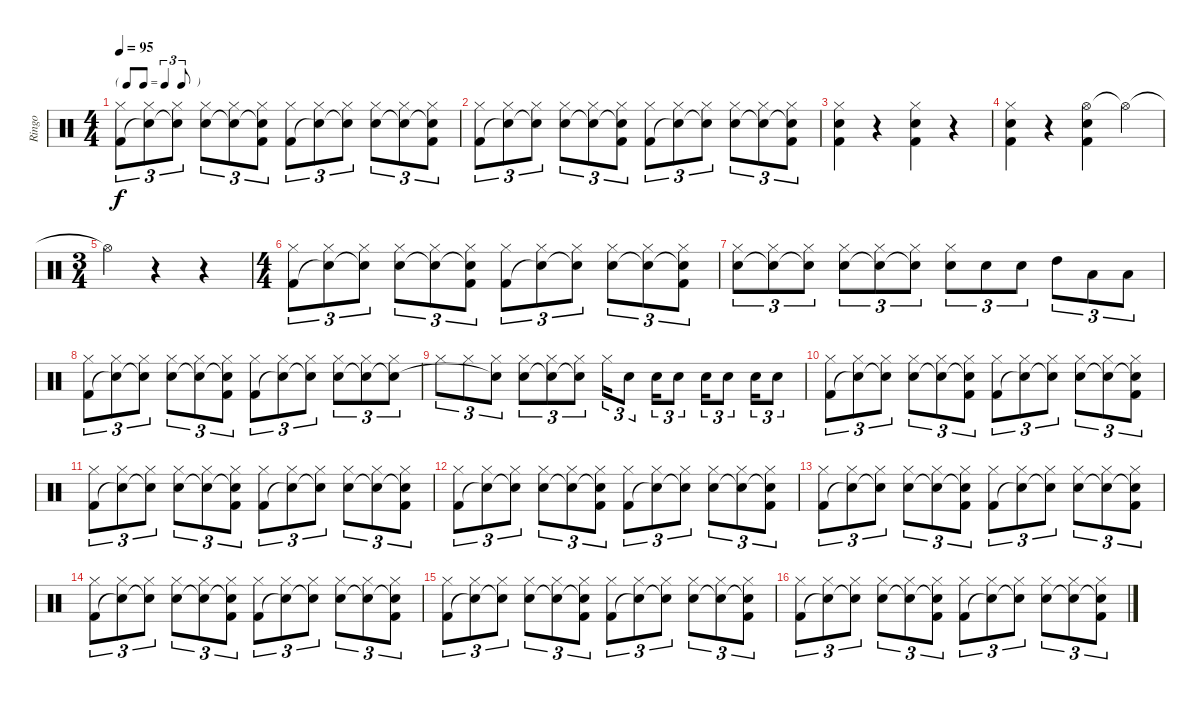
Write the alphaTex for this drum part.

\track ("Ringo" "Ringo") {instrument percussion}
\staff {score}
\articulation defaults
\ts (4 4)
\tf triplet8th
\tempo 95
\clef neutral
\ks c
("Hi-Hat (closed)" "Kick (hit) 2").8{tu (3 2) dy f} ("Hi-Hat (closed)" "Snare (hit)"{t}).8{tu (3 2)} ("Hi-Hat (closed)" "Snare (hit)"{t}).8{tu (3 2)} ("Hi-Hat (closed)" "Snare (hit) 2").8{tu (3 2)} ("Hi-Hat (closed)" "Snare (hit)"{t}).8{tu (3 2)} ("Hi-Hat (closed)" "Snare (hit)"{t} "Kick (hit) 2").8{tu (3 2)} ("Hi-Hat (closed)" "Kick (hit) 2").8{tu (3 2)} ("Hi-Hat (closed)" "Snare (hit)"{t}).8{tu (3 2)} ("Hi-Hat (closed)" "Snare (hit)"{t}).8{tu (3 2)} ("Hi-Hat (closed)" "Snare (hit) 2").8{tu (3 2)} ("Hi-Hat (closed)" "Snare (hit)"{t}).8{tu (3 2)} ("Hi-Hat (closed)" "Snare (hit)"{t} "Kick (hit) 2").8{tu (3 2)} |
("Hi-Hat (closed)" "Kick (hit) 2").8{tu (3 2)} ("Hi-Hat (closed)" "Snare (hit)"{t}).8{tu (3 2)} ("Hi-Hat (closed)" "Snare (hit)"{t}).8{tu (3 2)} ("Hi-Hat (closed)" "Snare (hit) 2").8{tu (3 2)} ("Hi-Hat (closed)" "Snare (hit)"{t}).8{tu (3 2)} ("Hi-Hat (closed)" "Snare (hit)"{t} "Kick (hit) 2").8{tu (3 2)} ("Hi-Hat (closed)" "Kick (hit) 2").8{tu (3 2)} ("Hi-Hat (closed)" "Snare (hit)"{t}).8{tu (3 2)} ("Hi-Hat (closed)" "Snare (hit)"{t}).8{tu (3 2)} ("Hi-Hat (closed)" "Snare (hit) 2").8{tu (3 2)} ("Hi-Hat (closed)" "Snare (hit)"{t}).8{tu (3 2)} ("Hi-Hat (closed)" "Snare (hit)"{t} "Kick (hit) 2").8{tu (3 2)} |
("Hi-Hat (closed)" "Snare (hit) 2" "Kick (hit) 2").4 r.4 ("Hi-Hat (closed)" "Snare (hit) 2" "Kick (hit) 2").4 r.4 |
("Hi-Hat (closed)" "Snare (hit) 2" "Kick (hit) 2").4 r.4 ("Hi-Hat (open)" "Snare (hit) 2" "Kick (hit) 2").4 "Hi-Hat (open)"{t}.4 |
\ts (3 4)
"Hi-Hat (open)"{t}.4 r.4 r.4 |
\ts (4 4)
("Hi-Hat (closed)" "Kick (hit) 2").8{tu (3 2)} ("Hi-Hat (closed)" "Snare (hit)"{t}).8{tu (3 2)} ("Hi-Hat (closed)" "Snare (hit)"{t}).8{tu (3 2)} ("Hi-Hat (closed)" "Snare (hit) 2").8{tu (3 2)} ("Hi-Hat (closed)" "Snare (hit)"{t}).8{tu (3 2)} ("Hi-Hat (closed)" "Snare (hit)"{t} "Kick (hit) 2").8{tu (3 2)} ("Hi-Hat (closed)" "Kick (hit) 2").8{tu (3 2)} ("Hi-Hat (closed)" "Snare (hit)"{t}).8{tu (3 2)} ("Hi-Hat (closed)" "Snare (hit)"{t}).8{tu (3 2)} ("Hi-Hat (closed)" "Snare (hit) 2").8{tu (3 2)} ("Hi-Hat (closed)" "Snare (hit)"{t}).8{tu (3 2)} ("Hi-Hat (closed)" "Snare (hit)"{t} "Kick (hit) 2").8{tu (3 2)} |
("Hi-Hat (closed)" "Snare (hit) 2").8{tu (3 2)} ("Hi-Hat (closed)" "Snare (hit)"{t}).8{tu (3 2)} ("Hi-Hat (closed)" "Snare (hit)"{t}).8{tu (3 2)} ("Hi-Hat (closed)" "Snare (hit) 2").8{tu (3 2)} ("Hi-Hat (closed)" "Snare (hit)"{t}).8{tu (3 2)} ("Hi-Hat (closed)" "Snare (hit)"{t}).8{tu (3 2)} ("Hi-Hat (closed)" "Snare (hit) 2").8{tu (3 2)} "Snare (hit) 2".8{tu (3 2)} "Snare (hit) 2".8{tu (3 2)} "High Tom (hit)".8{tu (3 2)} "Low Floor Tom (hit)".8{tu (3 2)} "Low Floor Tom (hit)".8{tu (3 2)} |
("Hi-Hat (closed)" "Kick (hit) 2").8{tu (3 2)} ("Hi-Hat (closed)" "Snare (hit)"{t}).8{tu (3 2)} ("Hi-Hat (closed)" "Snare (hit)"{t}).8{tu (3 2)} ("Hi-Hat (closed)" "Snare (hit) 2").8{tu (3 2)} ("Hi-Hat (closed)" "Snare (hit)"{t}).8{tu (3 2)} ("Hi-Hat (closed)" "Snare (hit)"{t} "Kick (hit) 2").8{tu (3 2)} ("Hi-Hat (closed)" "Kick (hit) 2").8{tu (3 2)} ("Hi-Hat (closed)" "Snare (hit)"{t}).8{tu (3 2)} ("Hi-Hat (closed)" "Snare (hit)"{t}).8{tu (3 2)} ("Hi-Hat (closed)" "Snare (hit) 2").8{tu (3 2)} ("Hi-Hat (closed)" "Snare (hit)"{t}).8{tu (3 2)} ("Hi-Hat (closed)" "Snare (hit)"{t}).8{tu (3 2)} |
"Hi-Hat (closed)".8{tu (3 2)} "Hi-Hat (closed)".8{tu (3 2)} ("Hi-Hat (closed)" "Snare (hit)"{t}).8{tu (3 2)} ("Hi-Hat (closed)" "Snare (hit) 2").8{tu (3 2)} ("Hi-Hat (closed)" "Snare (hit)"{t}).8{tu (3 2)} ("Hi-Hat (closed)" "Snare (hit)"{t}).8{tu (3 2)} "Hi-Hat (closed)".16{tu (3 2)} "Snare (hit) 2".8{tu (3 2)} "Snare (hit) 2".16{tu (3 2)} "Snare (hit) 2".8{tu (3 2)} "Snare (hit) 2".16{tu (3 2)} "Snare (hit) 2".8{tu (3 2)} "Snare (hit) 2".16{tu (3 2)} "Snare (hit) 2".8{tu (3 2)} |
("Hi-Hat (closed)" "Kick (hit) 2").8{tu (3 2)} ("Hi-Hat (closed)" "Snare (hit)"{t}).8{tu (3 2)} ("Hi-Hat (closed)" "Snare (hit)"{t}).8{tu (3 2)} ("Hi-Hat (closed)" "Snare (hit) 2").8{tu (3 2)} ("Hi-Hat (closed)" "Snare (hit)"{t}).8{tu (3 2)} ("Hi-Hat (closed)" "Snare (hit)"{t} "Kick (hit) 2").8{tu (3 2)} ("Hi-Hat (closed)" "Kick (hit) 2").8{tu (3 2)} ("Hi-Hat (closed)" "Snare (hit)"{t}).8{tu (3 2)} ("Hi-Hat (closed)" "Snare (hit)"{t}).8{tu (3 2)} ("Hi-Hat (closed)" "Snare (hit) 2").8{tu (3 2)} ("Hi-Hat (closed)" "Snare (hit)"{t}).8{tu (3 2)} ("Hi-Hat (closed)" "Snare (hit)"{t} "Kick (hit) 2").8{tu (3 2)} |
("Hi-Hat (closed)" "Kick (hit) 2").8{tu (3 2)} ("Hi-Hat (closed)" "Snare (hit)"{t}).8{tu (3 2)} ("Hi-Hat (closed)" "Snare (hit)"{t}).8{tu (3 2)} ("Hi-Hat (closed)" "Snare (hit) 2").8{tu (3 2)} ("Hi-Hat (closed)" "Snare (hit)"{t}).8{tu (3 2)} ("Hi-Hat (closed)" "Snare (hit)"{t} "Kick (hit) 2").8{tu (3 2)} ("Hi-Hat (closed)" "Kick (hit) 2").8{tu (3 2)} ("Hi-Hat (closed)" "Snare (hit)"{t}).8{tu (3 2)} ("Hi-Hat (closed)" "Snare (hit)"{t}).8{tu (3 2)} ("Hi-Hat (closed)" "Snare (hit) 2").8{tu (3 2)} ("Hi-Hat (closed)" "Snare (hit)"{t}).8{tu (3 2)} ("Hi-Hat (closed)" "Snare (hit)"{t} "Kick (hit) 2").8{tu (3 2)} |
("Hi-Hat (closed)" "Kick (hit) 2").8{tu (3 2)} ("Hi-Hat (closed)" "Snare (hit)"{t}).8{tu (3 2)} ("Hi-Hat (closed)" "Snare (hit)"{t}).8{tu (3 2)} ("Hi-Hat (closed)" "Snare (hit) 2").8{tu (3 2)} ("Hi-Hat (closed)" "Snare (hit)"{t}).8{tu (3 2)} ("Hi-Hat (closed)" "Snare (hit)"{t} "Kick (hit) 2").8{tu (3 2)} ("Hi-Hat (closed)" "Kick (hit) 2").8{tu (3 2)} ("Hi-Hat (closed)" "Snare (hit)"{t}).8{tu (3 2)} ("Hi-Hat (closed)" "Snare (hit)"{t}).8{tu (3 2)} ("Hi-Hat (closed)" "Snare (hit) 2").8{tu (3 2)} ("Hi-Hat (closed)" "Snare (hit)"{t}).8{tu (3 2)} ("Hi-Hat (closed)" "Snare (hit)"{t} "Kick (hit) 2").8{tu (3 2)} |
("Hi-Hat (closed)" "Kick (hit) 2").8{tu (3 2)} ("Hi-Hat (closed)" "Snare (hit)"{t}).8{tu (3 2)} ("Hi-Hat (closed)" "Snare (hit)"{t}).8{tu (3 2)} ("Hi-Hat (closed)" "Snare (hit) 2").8{tu (3 2)} ("Hi-Hat (closed)" "Snare (hit)"{t}).8{tu (3 2)} ("Hi-Hat (closed)" "Snare (hit)"{t} "Kick (hit) 2").8{tu (3 2)} ("Hi-Hat (closed)" "Kick (hit) 2").8{tu (3 2)} ("Hi-Hat (closed)" "Snare (hit)"{t}).8{tu (3 2)} ("Hi-Hat (closed)" "Snare (hit)"{t}).8{tu (3 2)} ("Hi-Hat (closed)" "Snare (hit) 2").8{tu (3 2)} ("Hi-Hat (closed)" "Snare (hit)"{t}).8{tu (3 2)} ("Hi-Hat (closed)" "Snare (hit)"{t} "Kick (hit) 2").8{tu (3 2)} |
("Hi-Hat (closed)" "Kick (hit) 2").8{tu (3 2)} ("Hi-Hat (closed)" "Snare (hit)"{t}).8{tu (3 2)} ("Hi-Hat (closed)" "Snare (hit)"{t}).8{tu (3 2)} ("Hi-Hat (closed)" "Snare (hit) 2").8{tu (3 2)} ("Hi-Hat (closed)" "Snare (hit)"{t}).8{tu (3 2)} ("Hi-Hat (closed)" "Snare (hit)"{t} "Kick (hit) 2").8{tu (3 2)} ("Hi-Hat (closed)" "Kick (hit) 2").8{tu (3 2)} ("Hi-Hat (closed)" "Snare (hit)"{t}).8{tu (3 2)} ("Hi-Hat (closed)" "Snare (hit)"{t}).8{tu (3 2)} ("Hi-Hat (closed)" "Snare (hit) 2").8{tu (3 2)} ("Hi-Hat (closed)" "Snare (hit)"{t}).8{tu (3 2)} ("Hi-Hat (closed)" "Snare (hit)"{t} "Kick (hit) 2").8{tu (3 2)} |
("Hi-Hat (closed)" "Kick (hit) 2").8{tu (3 2)} ("Hi-Hat (closed)" "Snare (hit)"{t}).8{tu (3 2)} ("Hi-Hat (closed)" "Snare (hit)"{t}).8{tu (3 2)} ("Hi-Hat (closed)" "Snare (hit) 2").8{tu (3 2)} ("Hi-Hat (closed)" "Snare (hit)"{t}).8{tu (3 2)} ("Hi-Hat (closed)" "Snare (hit)"{t} "Kick (hit) 2").8{tu (3 2)} ("Hi-Hat (closed)" "Kick (hit) 2").8{tu (3 2)} ("Hi-Hat (closed)" "Snare (hit)"{t}).8{tu (3 2)} ("Hi-Hat (closed)" "Snare (hit)"{t}).8{tu (3 2)} ("Hi-Hat (closed)" "Snare (hit) 2").8{tu (3 2)} ("Hi-Hat (closed)" "Snare (hit)"{t}).8{tu (3 2)} ("Hi-Hat (closed)" "Snare (hit)"{t} "Kick (hit) 2").8{tu (3 2)} |
("Hi-Hat (closed)" "Kick (hit) 2").8{tu (3 2)} ("Hi-Hat (closed)" "Snare (hit)"{t}).8{tu (3 2)} ("Hi-Hat (closed)" "Snare (hit)"{t}).8{tu (3 2)} ("Hi-Hat (closed)" "Snare (hit) 2").8{tu (3 2)} ("Hi-Hat (closed)" "Snare (hit)"{t}).8{tu (3 2)} ("Hi-Hat (closed)" "Snare (hit)"{t} "Kick (hit) 2").8{tu (3 2)} ("Hi-Hat (closed)" "Kick (hit) 2").8{tu (3 2)} ("Hi-Hat (closed)" "Snare (hit)"{t}).8{tu (3 2)} ("Hi-Hat (closed)" "Snare (hit)"{t}).8{tu (3 2)} ("Hi-Hat (closed)" "Snare (hit) 2").8{tu (3 2)} ("Hi-Hat (closed)" "Snare (hit)"{t}).8{tu (3 2)} ("Hi-Hat (closed)" "Snare (hit)"{t} "Kick (hit) 2").8{tu (3 2)}
